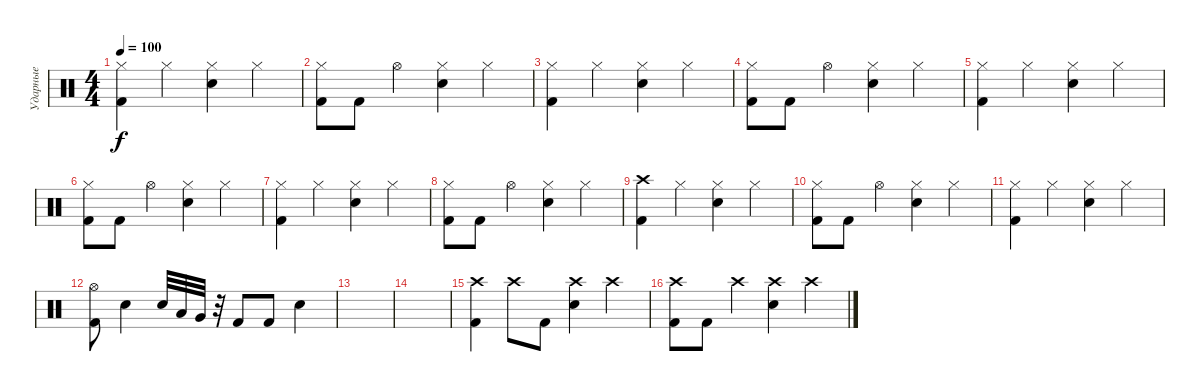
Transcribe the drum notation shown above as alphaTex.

\track ("Ударные" "Ударные") {instrument percussion}
\staff {score}
\articulation defaults
\ts (4 4)
\tempo 100
\clef neutral
\ks c
("Hi-Hat (closed)" "Kick (hit) 2").4{dy f} "Hi-Hat (closed)".4 ("Hi-Hat (closed)" "Snare (hit) 2").4 "Hi-Hat (closed)".4 |
("Hi-Hat (closed)" "Kick (hit) 2").8 "Kick (hit) 2".8 "Hi-Hat (open)".4 ("Hi-Hat (closed)" "Snare (hit) 2").4 "Hi-Hat (closed)".4 |
("Hi-Hat (closed)" "Kick (hit) 2").4 "Hi-Hat (closed)".4 ("Hi-Hat (closed)" "Snare (hit) 2").4 "Hi-Hat (closed)".4 |
("Hi-Hat (closed)" "Kick (hit) 2").8 "Kick (hit) 2".8 "Hi-Hat (open)".4 ("Hi-Hat (closed)" "Snare (hit) 2").4 "Hi-Hat (closed)".4 |
("Hi-Hat (closed)" "Kick (hit) 2").4 "Hi-Hat (closed)".4 ("Hi-Hat (closed)" "Snare (hit) 2").4 "Hi-Hat (closed)".4 |
("Hi-Hat (closed)" "Kick (hit) 2").8 "Kick (hit) 2".8 "Hi-Hat (open)".4 ("Hi-Hat (closed)" "Snare (hit) 2").4 "Hi-Hat (closed)".4 |
("Hi-Hat (closed)" "Kick (hit) 2").4 "Hi-Hat (closed)".4 ("Hi-Hat (closed)" "Snare (hit) 2").4 "Hi-Hat (closed)".4 |
("Hi-Hat (closed)" "Kick (hit) 2").8 "Kick (hit) 2".8 "Hi-Hat (open)".4 ("Hi-Hat (closed)" "Snare (hit) 2").4 "Hi-Hat (closed)".4 |
("Crash high (hit)" "Kick (hit) 2").4 "Hi-Hat (closed)".4 ("Hi-Hat (closed)" "Snare (hit) 2").4 "Hi-Hat (closed)".4 |
("Hi-Hat (closed)" "Kick (hit) 2").8 "Kick (hit) 2".8 "Hi-Hat (open)".4 ("Hi-Hat (closed)" "Snare (hit) 2").4 "Hi-Hat (closed)".4 |
("Hi-Hat (closed)" "Kick (hit) 2").4 "Hi-Hat (closed)".4 ("Hi-Hat (closed)" "Snare (hit) 2").4 "Hi-Hat (closed)".4 |
("Hi-Hat (open)" "Kick (hit) 2").8 "Snare (hit) 2".4 "Snare (hit) 2".32 "Low Tom (hit)".32 "Very Low Tom (hit)".32 r.32 "Kick (hit) 2".8 "Kick (hit) 2".8 "Snare (hit) 2".4 |
|
|
("Crash high (hit)" "Kick (hit) 2").4 "Crash high (hit)".8 "Kick (hit) 2".8 ("Crash high (hit)" "Snare (hit) 2").4 "Crash high (hit)".4 |
("Crash high (hit)" "Kick (hit) 2").8 "Kick (hit) 2".8 "Crash high (hit)".4 ("Crash high (hit)" "Snare (hit) 2").4 "Crash high (hit)".4
